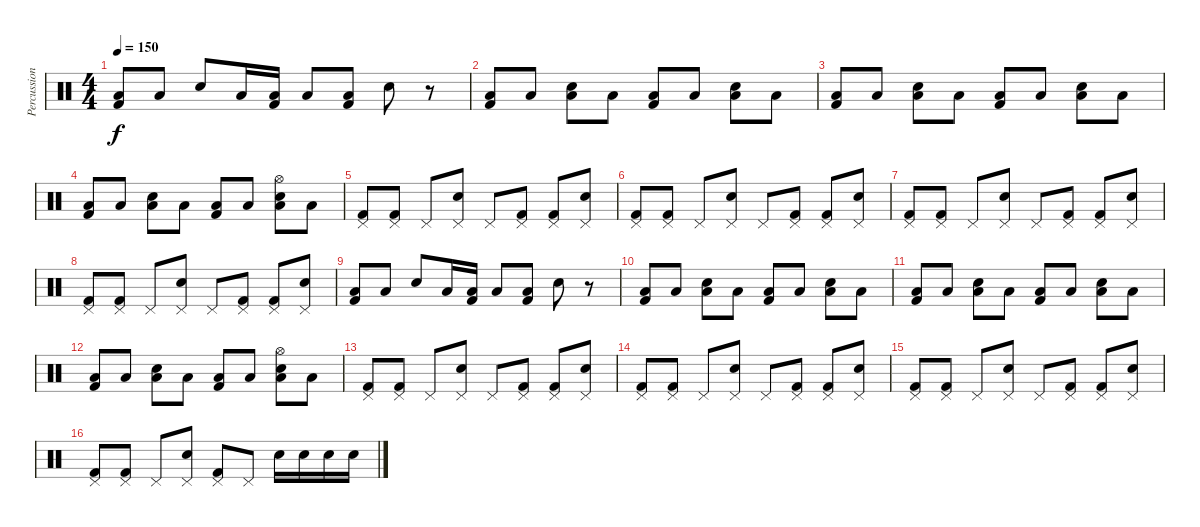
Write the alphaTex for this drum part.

\track ("Percussion" "Percussion") {instrument percussion}
\staff {score}
\articulation defaults
\ts (4 4)
\tempo 150
\clef neutral
\ks c
("Low Floor Tom (hit)" "Kick (hit) 2").8{dy f} "Low Floor Tom (hit)".8 "Electric Snare (hit)".8 "Low Floor Tom (hit)".16 ("Low Floor Tom (hit)" "Kick (hit) 2").16 "Low Floor Tom (hit)".8 ("Low Floor Tom (hit)" "Kick (hit) 2").8 "Electric Snare (hit)".8 r.8 |
("Low Floor Tom (hit)" "Kick (hit) 2").8 "Low Floor Tom (hit)".8 ("Low Floor Tom (hit)" "Electric Snare (hit)").8 "Low Floor Tom (hit)".8 ("Low Floor Tom (hit)" "Kick (hit) 2").8 "Low Floor Tom (hit)".8 ("Low Floor Tom (hit)" "Electric Snare (hit)").8 "Low Floor Tom (hit)".8 |
("Low Floor Tom (hit)" "Kick (hit) 2").8 "Low Floor Tom (hit)".8 ("Low Floor Tom (hit)" "Electric Snare (hit)").8 "Low Floor Tom (hit)".8 ("Low Floor Tom (hit)" "Kick (hit) 2").8 "Low Floor Tom (hit)".8 ("Low Floor Tom (hit)" "Electric Snare (hit)").8 "Low Floor Tom (hit)".8 |
("Low Floor Tom (hit)" "Kick (hit) 2").8 "Low Floor Tom (hit)".8 ("Low Floor Tom (hit)" "Electric Snare (hit)").8 "Low Floor Tom (hit)".8 ("Low Floor Tom (hit)" "Kick (hit) 2").8 "Low Floor Tom (hit)".8 ("Hi-Hat (open)" "Low Floor Tom (hit)" "Electric Snare (hit)").8 "Low Floor Tom (hit)".8 |
("Pedal Hi-Hat (hit)" "Kick (hit) 2").8 ("Pedal Hi-Hat (hit)" "Kick (hit) 2").8 "Pedal Hi-Hat (hit)".8 ("Pedal Hi-Hat (hit)" "Electric Snare (hit)").8 "Pedal Hi-Hat (hit)".8 ("Pedal Hi-Hat (hit)" "Kick (hit) 2").8 ("Pedal Hi-Hat (hit)" "Kick (hit) 2").8 ("Pedal Hi-Hat (hit)" "Electric Snare (hit)").8 |
("Pedal Hi-Hat (hit)" "Kick (hit) 2").8 ("Pedal Hi-Hat (hit)" "Kick (hit) 2").8 "Pedal Hi-Hat (hit)".8 ("Pedal Hi-Hat (hit)" "Electric Snare (hit)").8 "Pedal Hi-Hat (hit)".8 ("Pedal Hi-Hat (hit)" "Kick (hit) 2").8 ("Pedal Hi-Hat (hit)" "Kick (hit) 2").8 ("Pedal Hi-Hat (hit)" "Electric Snare (hit)").8 |
("Pedal Hi-Hat (hit)" "Kick (hit) 2").8 ("Pedal Hi-Hat (hit)" "Kick (hit) 2").8 "Pedal Hi-Hat (hit)".8 ("Pedal Hi-Hat (hit)" "Electric Snare (hit)").8 "Pedal Hi-Hat (hit)".8 ("Pedal Hi-Hat (hit)" "Kick (hit) 2").8 ("Pedal Hi-Hat (hit)" "Kick (hit) 2").8 ("Pedal Hi-Hat (hit)" "Electric Snare (hit)").8 |
("Pedal Hi-Hat (hit)" "Kick (hit) 2").8 ("Pedal Hi-Hat (hit)" "Kick (hit) 2").8 "Pedal Hi-Hat (hit)".8 ("Pedal Hi-Hat (hit)" "Electric Snare (hit)").8 "Pedal Hi-Hat (hit)".8 ("Pedal Hi-Hat (hit)" "Kick (hit) 2").8 ("Pedal Hi-Hat (hit)" "Kick (hit) 2").8 ("Pedal Hi-Hat (hit)" "Electric Snare (hit)").8 |
("Low Floor Tom (hit)" "Kick (hit) 2").8 "Low Floor Tom (hit)".8 "Electric Snare (hit)".8 "Low Floor Tom (hit)".16 ("Low Floor Tom (hit)" "Kick (hit) 2").16 "Low Floor Tom (hit)".8 ("Low Floor Tom (hit)" "Kick (hit) 2").8 "Electric Snare (hit)".8 r.8 |
("Low Floor Tom (hit)" "Kick (hit) 2").8 "Low Floor Tom (hit)".8 ("Low Floor Tom (hit)" "Electric Snare (hit)").8 "Low Floor Tom (hit)".8 ("Low Floor Tom (hit)" "Kick (hit) 2").8 "Low Floor Tom (hit)".8 ("Low Floor Tom (hit)" "Electric Snare (hit)").8 "Low Floor Tom (hit)".8 |
("Low Floor Tom (hit)" "Kick (hit) 2").8 "Low Floor Tom (hit)".8 ("Low Floor Tom (hit)" "Electric Snare (hit)").8 "Low Floor Tom (hit)".8 ("Low Floor Tom (hit)" "Kick (hit) 2").8 "Low Floor Tom (hit)".8 ("Low Floor Tom (hit)" "Electric Snare (hit)").8 "Low Floor Tom (hit)".8 |
("Low Floor Tom (hit)" "Kick (hit) 2").8 "Low Floor Tom (hit)".8 ("Low Floor Tom (hit)" "Electric Snare (hit)").8 "Low Floor Tom (hit)".8 ("Low Floor Tom (hit)" "Kick (hit) 2").8 "Low Floor Tom (hit)".8 ("Hi-Hat (open)" "Low Floor Tom (hit)" "Electric Snare (hit)").8 "Low Floor Tom (hit)".8 |
("Pedal Hi-Hat (hit)" "Kick (hit) 2").8 ("Pedal Hi-Hat (hit)" "Kick (hit) 2").8 "Pedal Hi-Hat (hit)".8 ("Pedal Hi-Hat (hit)" "Electric Snare (hit)").8 "Pedal Hi-Hat (hit)".8 ("Pedal Hi-Hat (hit)" "Kick (hit) 2").8 ("Pedal Hi-Hat (hit)" "Kick (hit) 2").8 ("Pedal Hi-Hat (hit)" "Electric Snare (hit)").8 |
("Pedal Hi-Hat (hit)" "Kick (hit) 2").8 ("Pedal Hi-Hat (hit)" "Kick (hit) 2").8 "Pedal Hi-Hat (hit)".8 ("Pedal Hi-Hat (hit)" "Electric Snare (hit)").8 "Pedal Hi-Hat (hit)".8 ("Pedal Hi-Hat (hit)" "Kick (hit) 2").8 ("Pedal Hi-Hat (hit)" "Kick (hit) 2").8 ("Pedal Hi-Hat (hit)" "Electric Snare (hit)").8 |
("Pedal Hi-Hat (hit)" "Kick (hit) 2").8 ("Pedal Hi-Hat (hit)" "Kick (hit) 2").8 "Pedal Hi-Hat (hit)".8 ("Pedal Hi-Hat (hit)" "Electric Snare (hit)").8 "Pedal Hi-Hat (hit)".8 ("Pedal Hi-Hat (hit)" "Kick (hit) 2").8 ("Pedal Hi-Hat (hit)" "Kick (hit) 2").8 ("Pedal Hi-Hat (hit)" "Electric Snare (hit)").8 |
("Pedal Hi-Hat (hit)" "Kick (hit) 2").8 ("Pedal Hi-Hat (hit)" "Kick (hit) 2").8 "Pedal Hi-Hat (hit)".8 ("Pedal Hi-Hat (hit)" "Electric Snare (hit)").8 ("Pedal Hi-Hat (hit)" "Kick (hit) 2").8 "Pedal Hi-Hat (hit)".8 "Electric Snare (hit)".16 "Electric Snare (hit)".16 "Electric Snare (hit)".16 "Electric Snare (hit)".16
